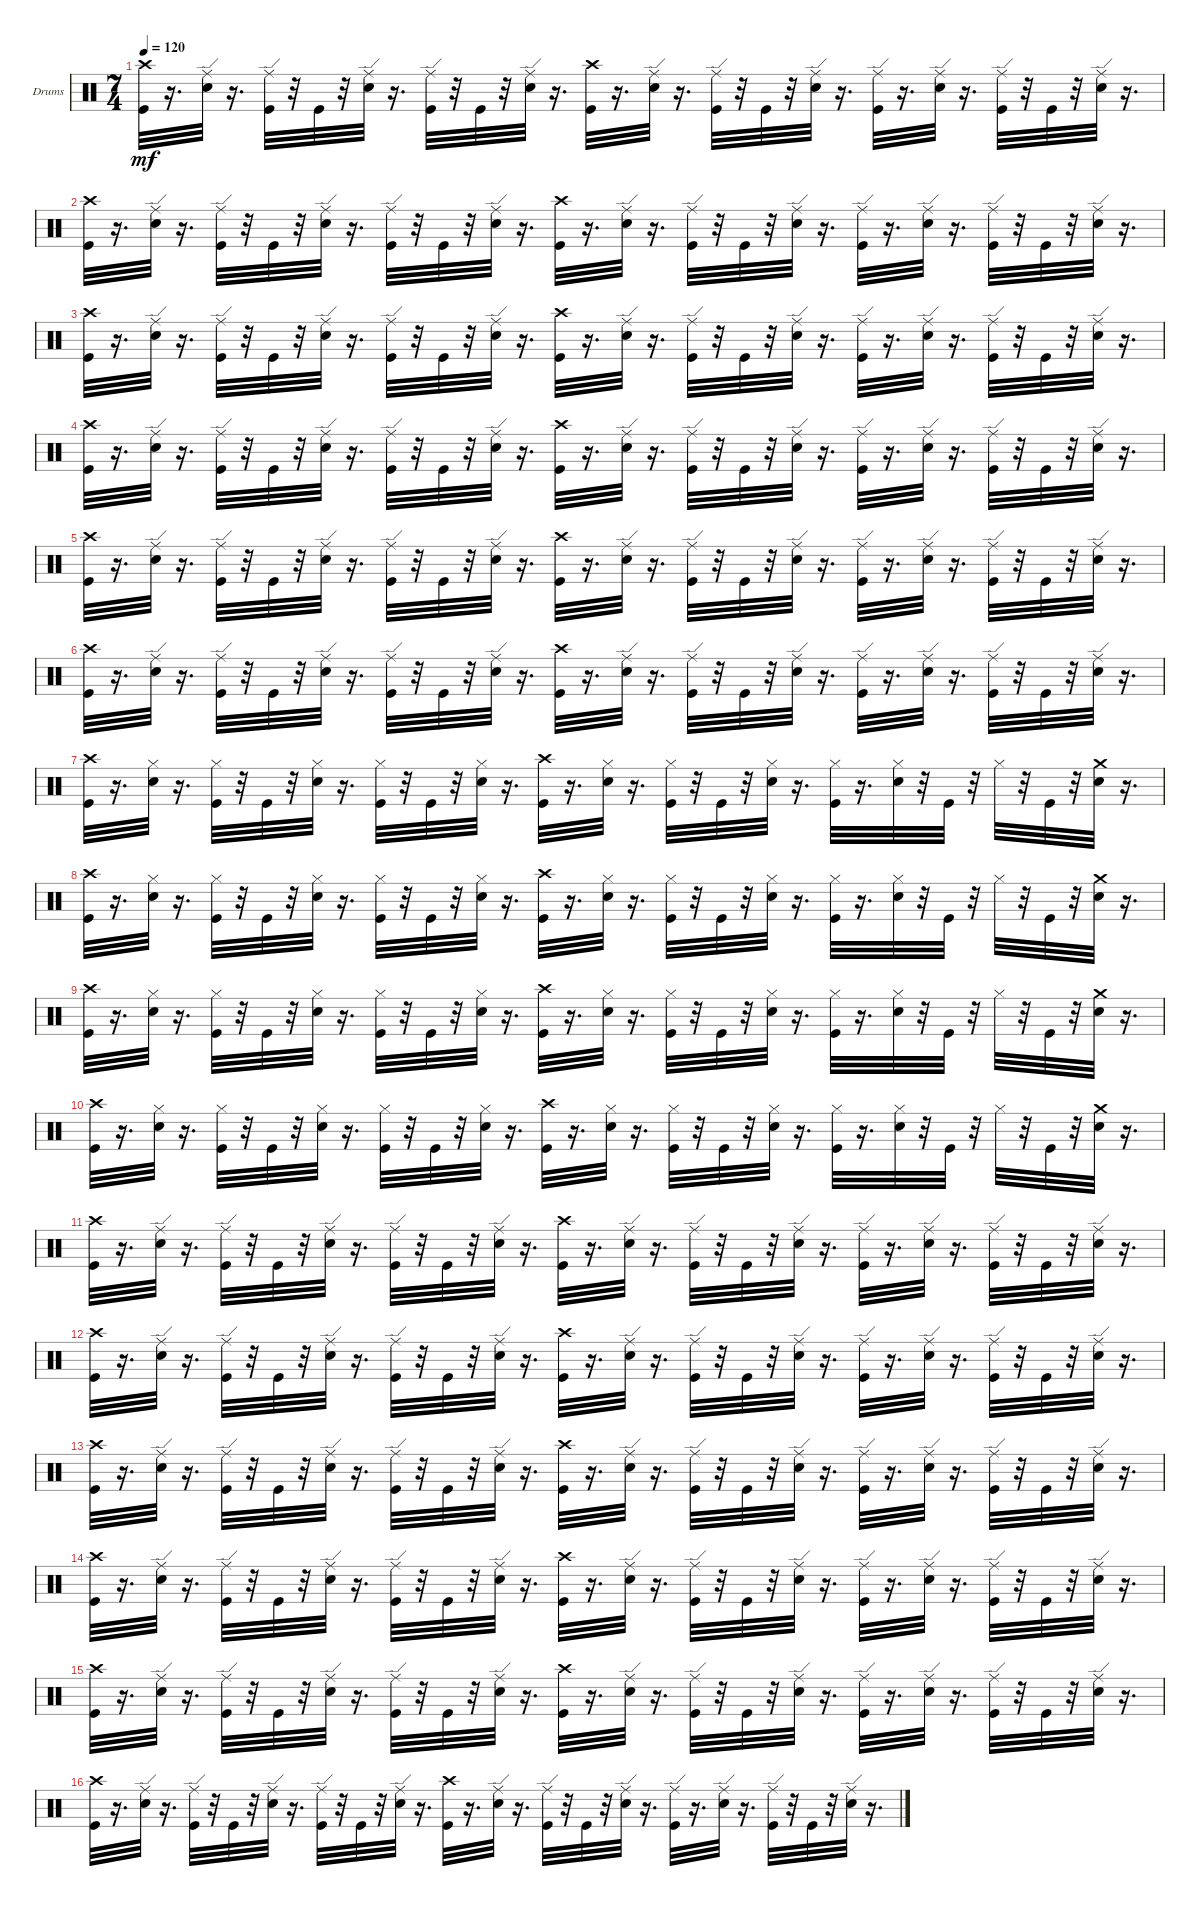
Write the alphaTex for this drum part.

\bracketExtendMode groupsimilarinstruments
\firstSystemTrackNameOrientation horizontal
\otherSystemsTrackNameOrientation horizontal
\track ("" "Drums") {instrument percussion}
\staff {score}
\articulation defaults
\ts (7 4)
\tempo 120
\clef neutral
\ks c
("Crash high (hit)" "Kick (hit)").32{dy mf} r.16{d} ("Snare (hit) 2" "Ride (edge)").32 r.16{d} ("Kick (hit)" "Ride (edge)").32 r.32 "Kick (hit)".32 r.32 ("Snare (hit) 2" "Ride (edge)").32 r.16{d} ("Kick (hit)" "Ride (edge)").32 r.32 "Kick (hit)".32 r.32 ("Ride (edge)" "Snare (hit) 2").32 r.16{d} ("Crash high (hit)" "Kick (hit)").32 r.16{d} ("Snare (hit) 2" "Ride (edge)").32 r.16{d} ("Kick (hit)" "Ride (edge)").32 r.32 "Kick (hit)".32 r.32 ("Snare (hit) 2" "Ride (edge)").32 r.16{d} ("Kick (hit)" "Ride (edge)").32 r.16{d} ("Snare (hit) 2" "Ride (edge)").32 r.16{d} ("Kick (hit)" "Ride (edge)").32 r.32 "Kick (hit)".32 r.32 ("Snare (hit) 2" "Ride (edge)").32 r.16{d} |
("Crash high (hit)" "Kick (hit)").32 r.16{d} ("Snare (hit) 2" "Ride (edge)").32 r.16{d} ("Kick (hit)" "Ride (edge)").32 r.32 "Kick (hit)".32 r.32 ("Snare (hit) 2" "Ride (edge)").32 r.16{d} ("Kick (hit)" "Ride (edge)").32 r.32 "Kick (hit)".32 r.32 ("Ride (edge)" "Snare (hit) 2").32 r.16{d} ("Crash high (hit)" "Kick (hit)").32 r.16{d} ("Snare (hit) 2" "Ride (edge)").32 r.16{d} ("Kick (hit)" "Ride (edge)").32 r.32 "Kick (hit)".32 r.32 ("Snare (hit) 2" "Ride (edge)").32 r.16{d} ("Kick (hit)" "Ride (edge)").32 r.16{d} ("Snare (hit) 2" "Ride (edge)").32 r.16{d} ("Kick (hit)" "Ride (edge)").32 r.32 "Kick (hit)".32 r.32 ("Snare (hit) 2" "Ride (edge)").32 r.16{d} |
("Crash high (hit)" "Kick (hit)").32 r.16{d} ("Snare (hit) 2" "Ride (edge)").32 r.16{d} ("Kick (hit)" "Ride (edge)").32 r.32 "Kick (hit)".32 r.32 ("Snare (hit) 2" "Ride (edge)").32 r.16{d} ("Kick (hit)" "Ride (edge)").32 r.32 "Kick (hit)".32 r.32 ("Ride (edge)" "Snare (hit) 2").32 r.16{d} ("Crash high (hit)" "Kick (hit)").32 r.16{d} ("Snare (hit) 2" "Ride (edge)").32 r.16{d} ("Kick (hit)" "Ride (edge)").32 r.32 "Kick (hit)".32 r.32 ("Snare (hit) 2" "Ride (edge)").32 r.16{d} ("Kick (hit)" "Ride (edge)").32 r.16{d} ("Snare (hit) 2" "Ride (edge)").32 r.16{d} ("Kick (hit)" "Ride (edge)").32 r.32 "Kick (hit)".32 r.32 ("Snare (hit) 2" "Ride (edge)").32 r.16{d} |
("Crash high (hit)" "Kick (hit)").32 r.16{d} ("Snare (hit) 2" "Ride (edge)").32 r.16{d} ("Kick (hit)" "Ride (edge)").32 r.32 "Kick (hit)".32 r.32 ("Snare (hit) 2" "Ride (edge)").32 r.16{d} ("Kick (hit)" "Ride (edge)").32 r.32 "Kick (hit)".32 r.32 ("Ride (edge)" "Snare (hit) 2").32 r.16{d} ("Crash high (hit)" "Kick (hit)").32 r.16{d} ("Snare (hit) 2" "Ride (edge)").32 r.16{d} ("Kick (hit)" "Ride (edge)").32 r.32 "Kick (hit)".32 r.32 ("Snare (hit) 2" "Ride (edge)").32 r.16{d} ("Kick (hit)" "Ride (edge)").32 r.16{d} ("Snare (hit) 2" "Ride (edge)").32 r.16{d} ("Kick (hit)" "Ride (edge)").32 r.32 "Kick (hit)".32 r.32 ("Snare (hit) 2" "Ride (edge)").32 r.16{d} |
("Crash high (hit)" "Kick (hit)").32 r.16{d} ("Snare (hit) 2" "Ride (edge)").32 r.16{d} ("Kick (hit)" "Ride (edge)").32 r.32 "Kick (hit)".32 r.32 ("Snare (hit) 2" "Ride (edge)").32 r.16{d} ("Kick (hit)" "Ride (edge)").32 r.32 "Kick (hit)".32 r.32 ("Ride (edge)" "Snare (hit) 2").32 r.16{d} ("Crash high (hit)" "Kick (hit)").32 r.16{d} ("Snare (hit) 2" "Ride (edge)").32 r.16{d} ("Kick (hit)" "Ride (edge)").32 r.32 "Kick (hit)".32 r.32 ("Snare (hit) 2" "Ride (edge)").32 r.16{d} ("Kick (hit)" "Ride (edge)").32 r.16{d} ("Snare (hit) 2" "Ride (edge)").32 r.16{d} ("Kick (hit)" "Ride (edge)").32 r.32 "Kick (hit)".32 r.32 ("Snare (hit) 2" "Ride (edge)").32 r.16{d} |
("Crash high (hit)" "Kick (hit)").32 r.16{d} ("Snare (hit) 2" "Ride (edge)").32 r.16{d} ("Kick (hit)" "Ride (edge)").32 r.32 "Kick (hit)".32 r.32 ("Snare (hit) 2" "Ride (edge)").32 r.16{d} ("Kick (hit)" "Ride (edge)").32 r.32 "Kick (hit)".32 r.32 ("Ride (edge)" "Snare (hit) 2").32 r.16{d} ("Crash high (hit)" "Kick (hit)").32 r.16{d} ("Snare (hit) 2" "Ride (edge)").32 r.16{d} ("Kick (hit)" "Ride (edge)").32 r.32 "Kick (hit)".32 r.32 ("Snare (hit) 2" "Ride (edge)").32 r.16{d} ("Kick (hit)" "Ride (edge)").32 r.16{d} ("Snare (hit) 2" "Ride (edge)").32 r.16{d} ("Kick (hit)" "Ride (edge)").32 r.32 "Kick (hit)".32 r.32 ("Snare (hit) 2" "Ride (edge)").32 r.16{d} |
("Crash high (hit)" "Kick (hit)").32 r.16{d} ("Snare (hit) 2" "Hi-Hat (closed)").32 r.16{d} ("Kick (hit)" "Hi-Hat (closed)").32 r.32 "Kick (hit)".32 r.32 ("Snare (hit) 2" "Hi-Hat (closed)").32 r.16{d} ("Kick (hit)" "Hi-Hat (closed)").32 r.32 "Kick (hit)".32 r.32 ("Snare (hit) 2" "Hi-Hat (closed)").32 r.16{d} ("Crash high (hit)" "Kick (hit)").32 r.16{d} ("Snare (hit) 2" "Hi-Hat (closed)").32 r.16{d} ("Kick (hit)" "Hi-Hat (closed)").32 r.32 "Kick (hit)".32 r.32 ("Snare (hit) 2" "Hi-Hat (closed)").32 r.16{d} ("Kick (hit)" "Hi-Hat (closed)").32 r.16{d} ("Snare (hit) 2" "Hi-Hat (closed)").32 r.32 "Kick (hit)".32 r.32 "Hi-Hat (closed)".32 r.32 "Kick (hit)".32 r.32 ("Crash medium (hit)" "Snare (hit) 2").32 r.16{d} |
("Crash high (hit)" "Kick (hit)").32 r.16{d} ("Snare (hit) 2" "Hi-Hat (closed)").32 r.16{d} ("Kick (hit)" "Hi-Hat (closed)").32 r.32 "Kick (hit)".32 r.32 ("Snare (hit) 2" "Hi-Hat (closed)").32 r.16{d} ("Kick (hit)" "Hi-Hat (closed)").32 r.32 "Kick (hit)".32 r.32 ("Snare (hit) 2" "Hi-Hat (closed)").32 r.16{d} ("Crash high (hit)" "Kick (hit)").32 r.16{d} ("Snare (hit) 2" "Hi-Hat (closed)").32 r.16{d} ("Kick (hit)" "Hi-Hat (closed)").32 r.32 "Kick (hit)".32 r.32 ("Snare (hit) 2" "Hi-Hat (closed)").32 r.16{d} ("Kick (hit)" "Hi-Hat (closed)").32 r.16{d} ("Snare (hit) 2" "Hi-Hat (closed)").32 r.32 "Kick (hit)".32 r.32 "Hi-Hat (closed)".32 r.32 "Kick (hit)".32 r.32 ("Crash medium (hit)" "Snare (hit) 2").32 r.16{d} |
("Crash high (hit)" "Kick (hit)").32 r.16{d} ("Snare (hit) 2" "Hi-Hat (closed)").32 r.16{d} ("Kick (hit)" "Hi-Hat (closed)").32 r.32 "Kick (hit)".32 r.32 ("Snare (hit) 2" "Hi-Hat (closed)").32 r.16{d} ("Kick (hit)" "Hi-Hat (closed)").32 r.32 "Kick (hit)".32 r.32 ("Snare (hit) 2" "Hi-Hat (closed)").32 r.16{d} ("Crash high (hit)" "Kick (hit)").32 r.16{d} ("Snare (hit) 2" "Hi-Hat (closed)").32 r.16{d} ("Kick (hit)" "Hi-Hat (closed)").32 r.32 "Kick (hit)".32 r.32 ("Snare (hit) 2" "Hi-Hat (closed)").32 r.16{d} ("Kick (hit)" "Hi-Hat (closed)").32 r.16{d} ("Snare (hit) 2" "Hi-Hat (closed)").32 r.32 "Kick (hit)".32 r.32 "Hi-Hat (closed)".32 r.32 "Kick (hit)".32 r.32 ("Crash medium (hit)" "Snare (hit) 2").32 r.16{d} |
("Crash high (hit)" "Kick (hit)").32 r.16{d} ("Snare (hit) 2" "Hi-Hat (closed)").32 r.16{d} ("Kick (hit)" "Hi-Hat (closed)").32 r.32 "Kick (hit)".32 r.32 ("Snare (hit) 2" "Hi-Hat (closed)").32 r.16{d} ("Kick (hit)" "Hi-Hat (closed)").32 r.32 "Kick (hit)".32 r.32 ("Snare (hit) 2" "Hi-Hat (closed)").32 r.16{d} ("Crash high (hit)" "Kick (hit)").32 r.16{d} ("Snare (hit) 2" "Hi-Hat (closed)").32 r.16{d} ("Kick (hit)" "Hi-Hat (closed)").32 r.32 "Kick (hit)".32 r.32 ("Snare (hit) 2" "Hi-Hat (closed)").32 r.16{d} ("Kick (hit)" "Hi-Hat (closed)").32 r.16{d} ("Snare (hit) 2" "Hi-Hat (closed)").32 r.32 "Kick (hit)".32 r.32 "Hi-Hat (closed)".32 r.32 "Kick (hit)".32 r.32 ("Crash medium (hit)" "Snare (hit) 2").32 r.16{d} |
("Crash high (hit)" "Kick (hit)").32 r.16{d} ("Snare (hit) 2" "Ride (edge)").32 r.16{d} ("Kick (hit)" "Ride (edge)").32 r.32 "Kick (hit)".32 r.32 ("Snare (hit) 2" "Ride (edge)").32 r.16{d} ("Kick (hit)" "Ride (edge)").32 r.32 "Kick (hit)".32 r.32 ("Ride (edge)" "Snare (hit) 2").32 r.16{d} ("Crash high (hit)" "Kick (hit)").32 r.16{d} ("Snare (hit) 2" "Ride (edge)").32 r.16{d} ("Kick (hit)" "Ride (edge)").32 r.32 "Kick (hit)".32 r.32 ("Snare (hit) 2" "Ride (edge)").32 r.16{d} ("Kick (hit)" "Ride (edge)").32 r.16{d} ("Snare (hit) 2" "Ride (edge)").32 r.16{d} ("Kick (hit)" "Ride (edge)").32 r.32 "Kick (hit)".32 r.32 ("Snare (hit) 2" "Ride (edge)").32 r.16{d} |
("Crash high (hit)" "Kick (hit)").32 r.16{d} ("Snare (hit) 2" "Ride (edge)").32 r.16{d} ("Kick (hit)" "Ride (edge)").32 r.32 "Kick (hit)".32 r.32 ("Snare (hit) 2" "Ride (edge)").32 r.16{d} ("Kick (hit)" "Ride (edge)").32 r.32 "Kick (hit)".32 r.32 ("Ride (edge)" "Snare (hit) 2").32 r.16{d} ("Crash high (hit)" "Kick (hit)").32 r.16{d} ("Snare (hit) 2" "Ride (edge)").32 r.16{d} ("Kick (hit)" "Ride (edge)").32 r.32 "Kick (hit)".32 r.32 ("Snare (hit) 2" "Ride (edge)").32 r.16{d} ("Kick (hit)" "Ride (edge)").32 r.16{d} ("Snare (hit) 2" "Ride (edge)").32 r.16{d} ("Kick (hit)" "Ride (edge)").32 r.32 "Kick (hit)".32 r.32 ("Snare (hit) 2" "Ride (edge)").32 r.16{d} |
("Crash high (hit)" "Kick (hit)").32 r.16{d} ("Snare (hit) 2" "Ride (edge)").32 r.16{d} ("Kick (hit)" "Ride (edge)").32 r.32 "Kick (hit)".32 r.32 ("Snare (hit) 2" "Ride (edge)").32 r.16{d} ("Kick (hit)" "Ride (edge)").32 r.32 "Kick (hit)".32 r.32 ("Ride (edge)" "Snare (hit) 2").32 r.16{d} ("Crash high (hit)" "Kick (hit)").32 r.16{d} ("Snare (hit) 2" "Ride (edge)").32 r.16{d} ("Kick (hit)" "Ride (edge)").32 r.32 "Kick (hit)".32 r.32 ("Snare (hit) 2" "Ride (edge)").32 r.16{d} ("Kick (hit)" "Ride (edge)").32 r.16{d} ("Snare (hit) 2" "Ride (edge)").32 r.16{d} ("Kick (hit)" "Ride (edge)").32 r.32 "Kick (hit)".32 r.32 ("Snare (hit) 2" "Ride (edge)").32 r.16{d} |
("Crash high (hit)" "Kick (hit)").32 r.16{d} ("Snare (hit) 2" "Ride (edge)").32 r.16{d} ("Kick (hit)" "Ride (edge)").32 r.32 "Kick (hit)".32 r.32 ("Snare (hit) 2" "Ride (edge)").32 r.16{d} ("Kick (hit)" "Ride (edge)").32 r.32 "Kick (hit)".32 r.32 ("Ride (edge)" "Snare (hit) 2").32 r.16{d} ("Crash high (hit)" "Kick (hit)").32 r.16{d} ("Snare (hit) 2" "Ride (edge)").32 r.16{d} ("Kick (hit)" "Ride (edge)").32 r.32 "Kick (hit)".32 r.32 ("Snare (hit) 2" "Ride (edge)").32 r.16{d} ("Kick (hit)" "Ride (edge)").32 r.16{d} ("Snare (hit) 2" "Ride (edge)").32 r.16{d} ("Kick (hit)" "Ride (edge)").32 r.32 "Kick (hit)".32 r.32 ("Snare (hit) 2" "Ride (edge)").32 r.16{d} |
("Crash high (hit)" "Kick (hit)").32 r.16{d} ("Snare (hit) 2" "Ride (edge)").32 r.16{d} ("Kick (hit)" "Ride (edge)").32 r.32 "Kick (hit)".32 r.32 ("Snare (hit) 2" "Ride (edge)").32 r.16{d} ("Kick (hit)" "Ride (edge)").32 r.32 "Kick (hit)".32 r.32 ("Ride (edge)" "Snare (hit) 2").32 r.16{d} ("Crash high (hit)" "Kick (hit)").32 r.16{d} ("Snare (hit) 2" "Ride (edge)").32 r.16{d} ("Kick (hit)" "Ride (edge)").32 r.32 "Kick (hit)".32 r.32 ("Snare (hit) 2" "Ride (edge)").32 r.16{d} ("Kick (hit)" "Ride (edge)").32 r.16{d} ("Snare (hit) 2" "Ride (edge)").32 r.16{d} ("Kick (hit)" "Ride (edge)").32 r.32 "Kick (hit)".32 r.32 ("Snare (hit) 2" "Ride (edge)").32 r.16{d} |
("Crash high (hit)" "Kick (hit)").32 r.16{d} ("Snare (hit) 2" "Ride (edge)").32 r.16{d} ("Kick (hit)" "Ride (edge)").32 r.32 "Kick (hit)".32 r.32 ("Snare (hit) 2" "Ride (edge)").32 r.16{d} ("Kick (hit)" "Ride (edge)").32 r.32 "Kick (hit)".32 r.32 ("Ride (edge)" "Snare (hit) 2").32 r.16{d} ("Crash high (hit)" "Kick (hit)").32 r.16{d} ("Snare (hit) 2" "Ride (edge)").32 r.16{d} ("Kick (hit)" "Ride (edge)").32 r.32 "Kick (hit)".32 r.32 ("Snare (hit) 2" "Ride (edge)").32 r.16{d} ("Kick (hit)" "Ride (edge)").32 r.16{d} ("Snare (hit) 2" "Ride (edge)").32 r.16{d} ("Kick (hit)" "Ride (edge)").32 r.32 "Kick (hit)".32 r.32 ("Snare (hit) 2" "Ride (edge)").32 r.16{d}
